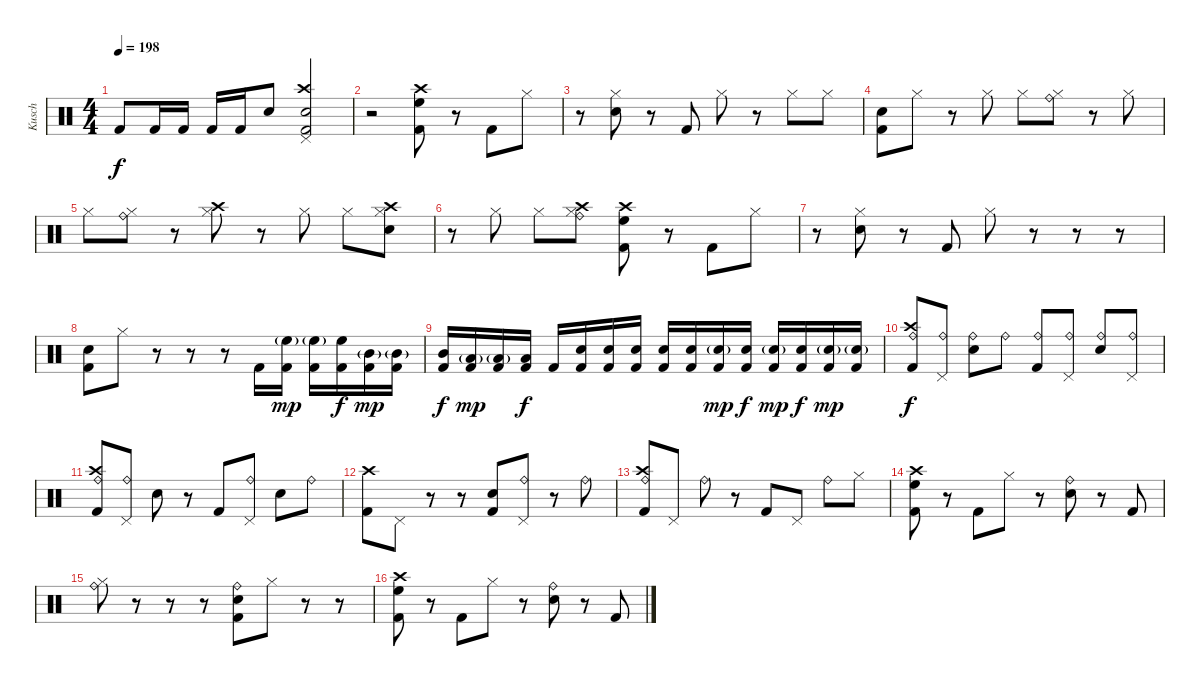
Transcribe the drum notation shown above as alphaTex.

\track ("Kusch" "Kusch") {instrument percussion}
\staff {score}
\articulation defaults
\ts (4 4)
\tempo 198
\clef neutral
\ks c "Kick (hit) 2".8{dy f} "Kick (hit) 2".16 "Kick (hit) 2".16 "Kick (hit) 2".16 "Kick (hit) 2".16 "Snare (hit) 2".8
("Snare (hit) 2" "Crash high (hit)" "Pedal Hi-Hat (hit)" "Kick (hit) 2").2 |
r.2 ("Crash high (hit)" "High Floor Tom (hit)" "Kick (hit) 2").8 r.8 "Kick (hit) 2".8 "Hi-Hat (closed)".8 |
r.8 ("Snare (hit) 2" "Hi-Hat (closed)").8 r.8 "Kick (hit) 2".8 "Hi-Hat (closed)".8 r.8 "Hi-Hat (closed)".8 "Hi-Hat (closed)".8 |
("Snare (hit) 2" "Kick (hit) 2").8 "Hi-Hat (closed)".8 r.8 "Hi-Hat (closed)".8 "Hi-Hat (closed)".8 ("Ride (bell)" "Hi-Hat (closed)").8 r.8 "Hi-Hat (closed)".8 |
"Hi-Hat (closed)".8 ("Ride (bell)" "Hi-Hat (closed)").8 r.8 ("Crash high (hit)" "Hi-Hat (closed)").8 r.8 "Hi-Hat (closed)".8 "Hi-Hat (closed)".8 ("Crash high (hit)" "Snare (hit) 2" "Hi-Hat (closed)").8 |
r.8 "Hi-Hat (closed)".8 "Hi-Hat (closed)".8 ("Crash high (hit)" "Ride (bell)" "Hi-Hat (closed)").8 ("Crash high (hit)" "High Floor Tom (hit)" "Kick (hit) 2").8 r.8 "Kick (hit) 2".8 "Hi-Hat (closed)".8 |
r.8 ("Snare (hit) 2" "Hi-Hat (closed)").8 r.8 "Kick (hit) 2".8 "Hi-Hat (closed)".8 r.8 r.8 r.8 |
("Snare (hit) 2" "Kick (hit) 2").8 "Hi-Hat (closed)".8 r.8 r.8 r.8 "Kick (hit) 2".16 ("High Floor Tom (hit)"{g} "Kick (hit) 2").16{dy mp} ("High Floor Tom (hit)"{g} "Kick (hit) 2").16 ("High Floor Tom (hit)" "Kick (hit) 2").16{dy f} ("Mid Tom (hit)"{g} "Kick (hit) 2").16{dy mp} ("Mid Tom (hit)"{g} "Kick (hit) 2").16 |
("Mid Tom (hit)" "Kick (hit) 2").16{dy f} ("Low Tom (hit)"{g} "Kick (hit) 2").16{dy mp} ("Low Tom (hit)"{g} "Kick (hit) 2").16 ("Low Tom (hit)" "Kick (hit) 2").16{dy f} "Kick (hit) 2".16 ("Snare (hit) 2" "Kick (hit) 2").16 ("Snare (hit) 2" "Kick (hit) 2").16 ("Snare (hit) 2" "Kick (hit) 2").16 ("Snare (hit) 2" "Kick (hit) 2").16 ("Snare (hit) 2" "Kick (hit) 2").16 ("Snare (hit) 2"{g} "Kick (hit) 2").16{dy mp} ("Snare (hit) 2" "Kick (hit) 2").16{dy f} ("Snare (hit) 2"{g} "Kick (hit) 2").16{dy mp} ("Snare (hit) 2" "Kick (hit) 2").16{dy f} ("Snare (hit) 2"{g} "Kick (hit) 2").16{dy mp} ("Snare (hit) 2"{g} "Kick (hit) 2").16 |
("Ride (bell)" "Crash high (hit)" "Kick (hit) 2").8{dy f} ("Ride (bell)" "Pedal Hi-Hat (hit)").8 ("Snare (hit) 2" "Ride (bell)").8 "Ride (bell)".8 ("Ride (bell)" "Kick (hit) 2").8 ("Ride (bell)" "Pedal Hi-Hat (hit)").8 ("Snare (hit) 2" "Ride (bell)").8 ("Ride (bell)" "Pedal Hi-Hat (hit)").8 |
("Ride (bell)" "Crash high (hit)" "Kick (hit) 2").8 ("Ride (bell)" "Pedal Hi-Hat (hit)").8 "Snare (hit) 2".8 r.8 "Kick (hit) 2".8 ("Ride (bell)" "Pedal Hi-Hat (hit)").8 "Snare (hit) 2".8 "Ride (bell)".8 |
("Crash high (hit)" "Kick (hit) 2").8 "Pedal Hi-Hat (hit)".8 r.8 r.8 ("Snare (hit) 2" "Kick (hit) 2").8 ("Ride (bell)" "Pedal Hi-Hat (hit)").8 r.8 "Ride (bell)".8 |
("Ride (bell)" "Crash high (hit)" "Kick (hit) 2").8 "Pedal Hi-Hat (hit)".8 "Ride (bell)".8 r.8 "Kick (hit) 2".8 "Pedal Hi-Hat (hit)".8 "Ride (bell)".8 "Hi-Hat (closed)".8 |
("Crash high (hit)" "High Floor Tom (hit)" "Kick (hit) 2").8 r.8 "Kick (hit) 2".8 "Hi-Hat (closed)".8 r.8 ("Snare (hit) 2" "Ride (bell)").8 r.8 "Kick (hit) 2".8 |
("Ride (bell)" "Hi-Hat (closed)").8 r.8 r.8 r.8 ("Snare (hit) 2" "Ride (bell)" "Kick (hit) 2").8 "Hi-Hat (closed)".8 r.8 r.8 |
("Crash high (hit)" "High Floor Tom (hit)" "Kick (hit) 2").8 r.8 "Kick (hit) 2".8 "Hi-Hat (closed)".8 r.8 ("Snare (hit) 2" "Ride (bell)").8 r.8 "Kick (hit) 2".8
